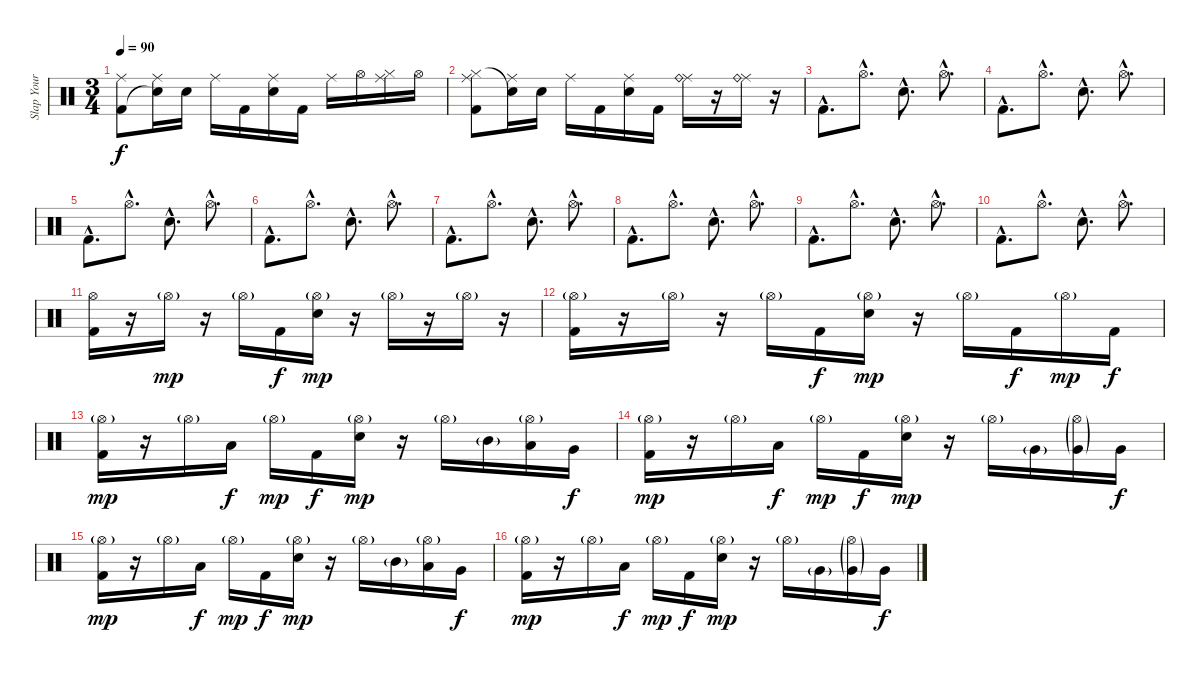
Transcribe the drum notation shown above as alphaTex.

\track ("Slap Your Sticks" "Slap Your ") {instrument percussion}
\staff {score}
\articulation defaults
\ts (3 4)
\tempo 90
\clef neutral
\ks c
("Ride (middle)" "Kick (hit) 2").8{dy f} ("Ride (middle)" "Snare (hit)"{t}).16 "Electric Snare (hit)".16 "Ride (middle)".16 "Kick (hit) 2".16 ("Ride (middle)" "Electric Snare (hit)").16 "Kick (hit) 2".16 "Ride (middle)".16 "Hi-Hat (open)".16 ("Ride (middle)" "Hi-Hat (closed)").16 "Hi-Hat (open)".16 |
("Ride (middle)" "Hi-Hat (closed)" "Kick (hit) 2").8 ("Ride (middle)" "Snare (hit)"{t}).16 "Electric Snare (hit)".16 "Ride (middle)".16 "Kick (hit) 2".16 ("Ride (middle)" "Electric Snare (hit)").16 "Kick (hit) 2".16 ("Ride (middle)" "Ride (bell)").16 r.16 ("Ride (middle)" "Ride (bell)").16 r.16 |
"Kick (hit) 2"{hac}.8{d} "Hi-Hat (open)"{hac}.8{d} "Electric Snare (hit)"{hac}.8{d} "Hi-Hat (open)"{hac}.8{d} |
"Kick (hit) 2"{hac}.8{d} "Hi-Hat (open)"{hac}.8{d} "Electric Snare (hit)"{hac}.8{d} "Hi-Hat (open)"{hac}.8{d} |
"Kick (hit) 2"{hac}.8{d} "Hi-Hat (open)"{hac}.8{d} "Electric Snare (hit)"{hac}.8{d} "Hi-Hat (open)"{hac}.8{d} |
"Kick (hit) 2"{hac}.8{d} "Hi-Hat (open)"{hac}.8{d} "Electric Snare (hit)"{hac}.8{d} "Hi-Hat (open)"{hac}.8{d} |
"Kick (hit) 2"{hac}.8{d} "Hi-Hat (open)"{hac}.8{d} "Electric Snare (hit)"{hac}.8{d} "Hi-Hat (open)"{hac}.8{d} |
"Kick (hit) 2"{hac}.8{d} "Hi-Hat (open)"{hac}.8{d} "Electric Snare (hit)"{hac}.8{d} "Hi-Hat (open)"{hac}.8{d} |
"Kick (hit) 2"{hac}.8{d} "Hi-Hat (open)"{hac}.8{d} "Electric Snare (hit)"{hac}.8{d} "Hi-Hat (open)"{hac}.8{d} |
"Kick (hit) 2"{hac}.8{d} "Hi-Hat (open)"{hac}.8{d} "Electric Snare (hit)"{hac}.8{d} "Hi-Hat (open)"{hac}.8{d} |
("Hi-Hat (open)" "Kick (hit) 2").16 r.16 "Hi-Hat (open)"{g}.16{dy mp} r.16 "Hi-Hat (open)"{g}.16 "Kick (hit) 2".16{dy f} ("Hi-Hat (open)"{g} "Electric Snare (hit)").16{dy mp} r.16 "Hi-Hat (open)"{g}.16 r.16 "Hi-Hat (open)"{g}.16 r.16 |
("Hi-Hat (open)"{g} "Kick (hit) 2").16 r.16 "Hi-Hat (open)"{g}.16 r.16 "Hi-Hat (open)"{g}.16 "Kick (hit) 2".16{dy f} ("Hi-Hat (open)"{g} "Electric Snare (hit)").16{dy mp} r.16 "Hi-Hat (open)"{g}.16 "Kick (hit) 2".16{dy f} "Hi-Hat (open)"{g}.16{dy mp} "Kick (hit) 2".16{dy f} |
("Hi-Hat (open)"{g} "Kick (hit) 2").16{dy mp} r.16 "Hi-Hat (open)"{g}.16 "Low Tom (hit)".16{dy f} "Hi-Hat (open)"{g}.16{dy mp} "Kick (hit) 2".16{dy f} ("Hi-Hat (open)"{g} "Electric Snare (hit)").16{dy mp} r.16 "Hi-Hat (open)"{g}.16 "Mid Tom (hit)"{g}.16 ("Hi-Hat (open)"{g} "Low Tom (hit)").16 "Very Low Tom (hit)".16{dy f} |
("Hi-Hat (open)"{g} "Kick (hit) 2").16{dy mp} r.16 "Hi-Hat (open)"{g}.16 "Low Tom (hit)".16{dy f} "Hi-Hat (open)"{g}.16{dy mp} "Kick (hit) 2".16{dy f} ("Hi-Hat (open)"{g} "Electric Snare (hit)").16{dy mp} r.16 "Hi-Hat (open)"{g}.16 "Very Low Tom (hit)"{g}.16 ("Hi-Hat (open)"{g} "Very Low Tom (hit)"{g}).16 "Very Low Tom (hit)".16{dy f} |
("Hi-Hat (open)"{g} "Kick (hit) 2").16{dy mp} r.16 "Hi-Hat (open)"{g}.16 "Low Tom (hit)".16{dy f} "Hi-Hat (open)"{g}.16{dy mp} "Kick (hit) 2".16{dy f} ("Hi-Hat (open)"{g} "Electric Snare (hit)").16{dy mp} r.16 "Hi-Hat (open)"{g}.16 "Mid Tom (hit)"{g}.16 ("Hi-Hat (open)"{g} "Low Tom (hit)").16 "Very Low Tom (hit)".16{dy f} |
("Hi-Hat (open)"{g} "Kick (hit) 2").16{dy mp} r.16 "Hi-Hat (open)"{g}.16 "Low Tom (hit)".16{dy f} "Hi-Hat (open)"{g}.16{dy mp} "Kick (hit) 2".16{dy f} ("Hi-Hat (open)"{g} "Electric Snare (hit)").16{dy mp} r.16 "Hi-Hat (open)"{g}.16 "Very Low Tom (hit)"{g}.16 ("Hi-Hat (open)"{g} "Very Low Tom (hit)"{g}).16 "Very Low Tom (hit)".16{dy f}
